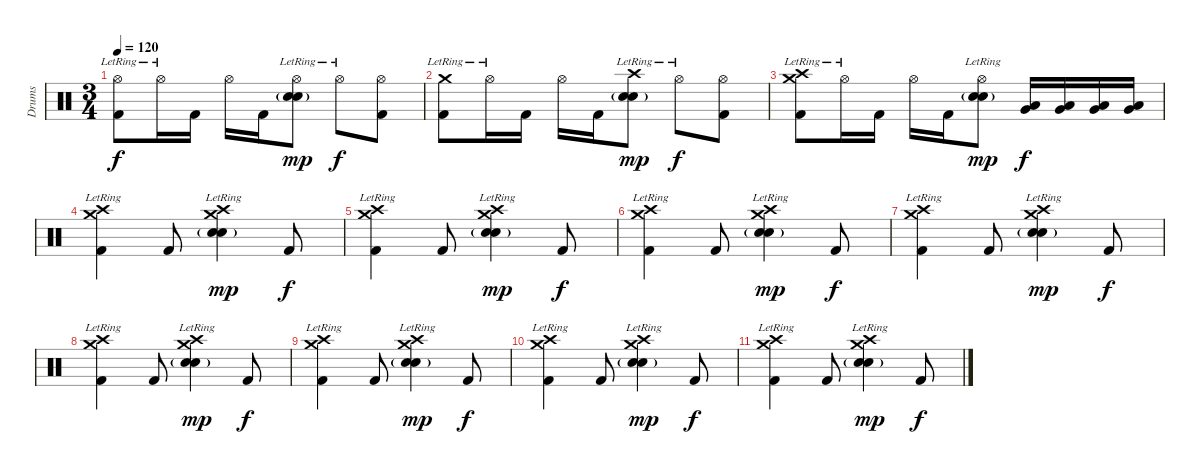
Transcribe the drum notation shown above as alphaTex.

\track ("Drums" "Drums") {instrument percussion}
\staff {score}
\articulation defaults
\ts (3 4)
\tempo 120
\clef neutral
\ks c
("Hi-Hat (open)"{lr} "Kick (hit) 2").8{dy f} "Hi-Hat (open)"{lr}.16 "Kick (hit) 2".16 "Hi-Hat (open)".16 "Kick (hit) 2".16 ("Hi-Hat (open)"{lr} "Electric Snare (hit)"{g} "Snare (hit) 2"{lr}).8{dy mp} "Hi-Hat (open)"{lr}.8{dy f} ("Hi-Hat (open)" "Kick (hit) 2").8 |
("Crash medium (hit)"{lr} "Kick (hit) 2").8 "Hi-Hat (open)"{lr}.16 "Kick (hit) 2".16 "Hi-Hat (open)".16 "Kick (hit) 2".16 ("Crash high (hit)"{lr} "Electric Snare (hit)"{g} "Snare (hit) 2"{lr}).8{dy mp} "Hi-Hat (open)"{lr}.8{dy f} ("Hi-Hat (open)" "Kick (hit) 2").8 |
("Crash high (hit)"{lr} "Crash medium (hit)"{lr} "Kick (hit) 2").8 "Hi-Hat (open)"{lr}.16 "Kick (hit) 2".16 "Hi-Hat (open)".16 "Kick (hit) 2".16 ("Hi-Hat (open)"{lr} "Electric Snare (hit)"{g} "Snare (hit) 2"{lr}).8{dy mp} ("Low Tom (hit)" "Very Low Tom (hit)").16{dy f} ("Low Tom (hit)" "Very Low Tom (hit)").16 ("Low Tom (hit)" "Very Low Tom (hit)").16 ("Low Tom (hit)" "Very Low Tom (hit)").16 |
("Crash high (hit)"{lr} "Crash medium (hit)"{lr} "Kick (hit) 2").4 "Kick (hit) 2".8 ("Crash high (hit)"{lr} "Crash medium (hit)"{lr} "Electric Snare (hit)"{g} "Snare (hit) 2"{lr}).4{dy mp} "Kick (hit) 2".8{dy f} |
("Crash high (hit)"{lr} "Crash medium (hit)"{lr} "Kick (hit) 2").4 "Kick (hit) 2".8 ("Crash high (hit)"{lr} "Crash medium (hit)"{lr} "Electric Snare (hit)"{g} "Snare (hit) 2"{lr}).4{dy mp} "Kick (hit) 2".8{dy f} |
("Crash high (hit)"{lr} "Crash medium (hit)"{lr} "Kick (hit) 2").4 "Kick (hit) 2".8 ("Crash high (hit)"{lr} "Crash medium (hit)"{lr} "Electric Snare (hit)"{g} "Snare (hit) 2"{lr}).4{dy mp} "Kick (hit) 2".8{dy f} |
("Crash high (hit)"{lr} "Crash medium (hit)"{lr} "Kick (hit) 2").4 "Kick (hit) 2".8 ("Crash high (hit)"{lr} "Crash medium (hit)"{lr} "Electric Snare (hit)"{g} "Snare (hit) 2"{lr}).4{dy mp} "Kick (hit) 2".8{dy f} |
("Crash high (hit)"{lr} "Crash medium (hit)"{lr} "Kick (hit) 2").4 "Kick (hit) 2".8 ("Crash high (hit)"{lr} "Crash medium (hit)"{lr} "Electric Snare (hit)"{g} "Snare (hit) 2"{lr}).4{dy mp} "Kick (hit) 2".8{dy f} |
("Crash high (hit)"{lr} "Crash medium (hit)"{lr} "Kick (hit) 2").4 "Kick (hit) 2".8 ("Crash high (hit)"{lr} "Crash medium (hit)"{lr} "Electric Snare (hit)"{g} "Snare (hit) 2"{lr}).4{dy mp} "Kick (hit) 2".8{dy f} |
("Crash high (hit)"{lr} "Crash medium (hit)"{lr} "Kick (hit) 2").4 "Kick (hit) 2".8 ("Crash high (hit)"{lr} "Crash medium (hit)"{lr} "Electric Snare (hit)"{g} "Snare (hit) 2"{lr}).4{dy mp} "Kick (hit) 2".8{dy f} |
("Crash high (hit)"{lr} "Crash medium (hit)"{lr} "Kick (hit) 2").4 "Kick (hit) 2".8 ("Crash high (hit)"{lr} "Crash medium (hit)"{lr} "Electric Snare (hit)"{g} "Snare (hit) 2"{lr}).4{dy mp} "Kick (hit) 2".8{dy f}
